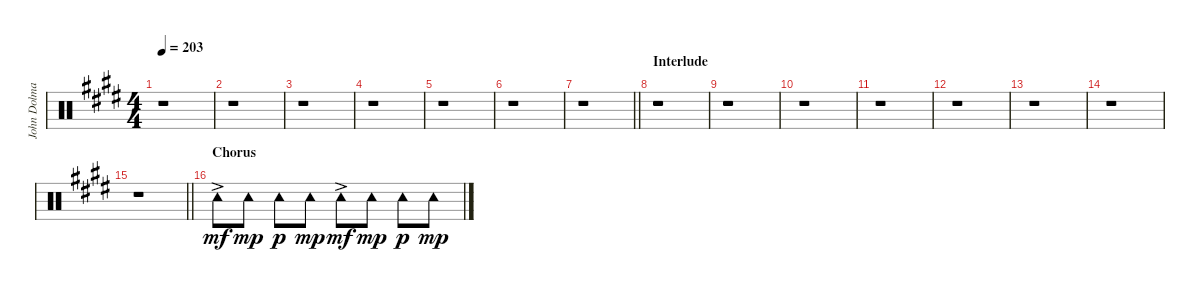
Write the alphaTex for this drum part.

\track ("John Dolmayan [Tambourine]" "John Dolma") {instrument percussion}
\staff {score}
\articulation defaults
\ts (4 4)
\tempo 203
\clef neutral
\ks c#minor
r.1{dy mp} |
r.1 |
r.1 |
r.1 |
r.1 |
r.1 |
\barLineRight lightlight
r.1 |
\section ("" "Interlude")
r.1 |
r.1 |
r.1 |
r.1 |
r.1 |
r.1 |
r.1 |
\barLineRight lightlight
r.1 |
\section ("" "Chorus")
"Tambourine (hit)"{ac}.8{dy mf} "Tambourine (hit)".8{dy mp} "Tambourine (hit)".8{dy p} "Tambourine (hit)".8{dy mp} "Tambourine (hit)"{ac}.8{dy mf} "Tambourine (hit)".8{dy mp} "Tambourine (hit)".8{dy p} "Tambourine (hit)".8{dy mp}
